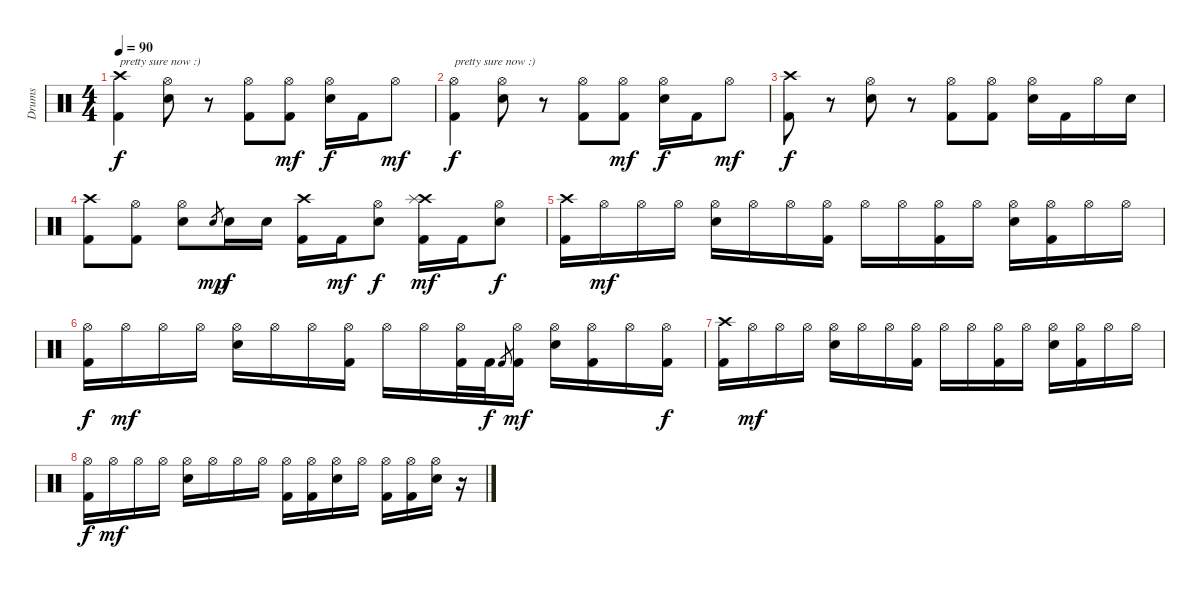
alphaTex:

\track ("Drums" "Drums") {instrument percussion}
\staff {score}
\articulation defaults
\ts (4 4)
\tempo 90
\clef neutral
\ks c
("Crash high (hit)" "Kick (hit) 2").4{txt "pretty sure now :)" dy f} ("Hi-Hat (open)" "Electric Snare (hit)").8 r.8 ("Hi-Hat (open)" "Kick (hit) 2").8 ("Hi-Hat (open)" "Kick (hit) 2").8{dy mf} ("Hi-Hat (open)" "Electric Snare (hit)").16{dy f} "Kick (hit) 2".16 "Hi-Hat (open)".8{dy mf} |
("Hi-Hat (open)" "Kick (hit) 2").4{txt "pretty sure now :)" dy f} ("Hi-Hat (open)" "Electric Snare (hit)").8 r.8 ("Hi-Hat (open)" "Kick (hit) 2").8 ("Hi-Hat (open)" "Kick (hit) 2").8{dy mf} ("Hi-Hat (open)" "Electric Snare (hit)").16{dy f} "Kick (hit) 2".16 "Hi-Hat (open)".8{dy mf} |
("Crash high (hit)" "Kick (hit) 2").8{dy f} r.8 ("Hi-Hat (open)" "Electric Snare (hit)").8 r.8 ("Hi-Hat (open)" "Kick (hit) 2").8 ("Hi-Hat (open)" "Kick (hit) 2").8 ("Hi-Hat (open)" "Electric Snare (hit)").16 "Kick (hit) 2".16 "Hi-Hat (open)".16 "Electric Snare (hit)".16 |
("Crash high (hit)" "Kick (hit) 2").8 ("Hi-Hat (open)" "Kick (hit) 2").8 ("Hi-Hat (open)" "Electric Snare (hit)").8 "Electric Snare (hit)".8{gr dy mp} "Electric Snare (hit)".16{dy f} "Electric Snare (hit)".16 ("Crash high (hit)" "Kick (hit) 2").16 "Kick (hit) 2".16{dy mf} ("Hi-Hat (open)" "Electric Snare (hit)").8{dy f} ("Crash high (hit)" "Splash (hit)" "Kick (hit) 2").16{dy mf} "Kick (hit) 2".16 ("Hi-Hat (open)" "Electric Snare (hit)").8{dy f} |
("Crash high (hit)" "Kick (hit) 2").16 "Hi-Hat (open)".16{dy mf} "Hi-Hat (open)".16 "Hi-Hat (open)".16 ("Hi-Hat (open)" "Electric Snare (hit)").16 "Hi-Hat (open)".16 "Hi-Hat (open)".16 ("Hi-Hat (open)" "Kick (hit) 2").16 "Hi-Hat (open)".16 "Hi-Hat (open)".16 ("Hi-Hat (open)" "Kick (hit) 2").16 "Hi-Hat (open)".16 ("Hi-Hat (open)" "Electric Snare (hit)").16 ("Hi-Hat (open)" "Kick (hit) 2").16 "Hi-Hat (open)".16 "Hi-Hat (open)".16 |
("Hi-Hat (open)" "Kick (hit) 2").16{dy f} "Hi-Hat (open)".16{dy mf} "Hi-Hat (open)".16 "Hi-Hat (open)".16 ("Hi-Hat (open)" "Electric Snare (hit)").16 "Hi-Hat (open)".16 "Hi-Hat (open)".16 ("Hi-Hat (open)" "Kick (hit) 2").16 "Hi-Hat (open)".16 "Hi-Hat (open)".16 ("Hi-Hat (open)" "Kick (hit) 2").32 "Kick (hit) 2".32{dy f} "Kick (hit) 2".8{gr} ("Hi-Hat (open)" "Kick (hit) 2").16{dy mf} ("Hi-Hat (open)" "Electric Snare (hit)").16 ("Hi-Hat (open)" "Kick (hit) 2").16 "Hi-Hat (open)".16 ("Hi-Hat (open)" "Kick (hit) 2").16{dy f} |
("Crash high (hit)" "Kick (hit) 2").16 "Hi-Hat (open)".16{dy mf} "Hi-Hat (open)".16 "Hi-Hat (open)".16 ("Hi-Hat (open)" "Electric Snare (hit)").16 "Hi-Hat (open)".16 "Hi-Hat (open)".16 ("Hi-Hat (open)" "Kick (hit) 2").16 "Hi-Hat (open)".16 "Hi-Hat (open)".16 ("Hi-Hat (open)" "Kick (hit) 2").16 "Hi-Hat (open)".16 ("Hi-Hat (open)" "Electric Snare (hit)").16 ("Hi-Hat (open)" "Kick (hit) 2").16 "Hi-Hat (open)".16 "Hi-Hat (open)".16 |
("Hi-Hat (open)" "Kick (hit) 2").16{dy f} "Hi-Hat (open)".16{dy mf} "Hi-Hat (open)".16 "Hi-Hat (open)".16 ("Hi-Hat (open)" "Electric Snare (hit)").16 "Hi-Hat (open)".16 "Hi-Hat (open)".16 "Hi-Hat (open)".16 ("Hi-Hat (open)" "Kick (hit) 2").16 ("Hi-Hat (open)" "Kick (hit) 2").16 ("Hi-Hat (open)" "Electric Snare (hit)").16 "Hi-Hat (open)".16 ("Hi-Hat (open)" "Kick (hit) 2").16 ("Hi-Hat (open)" "Kick (hit) 2").16 ("Hi-Hat (open)" "Electric Snare (hit)").16 r.16
